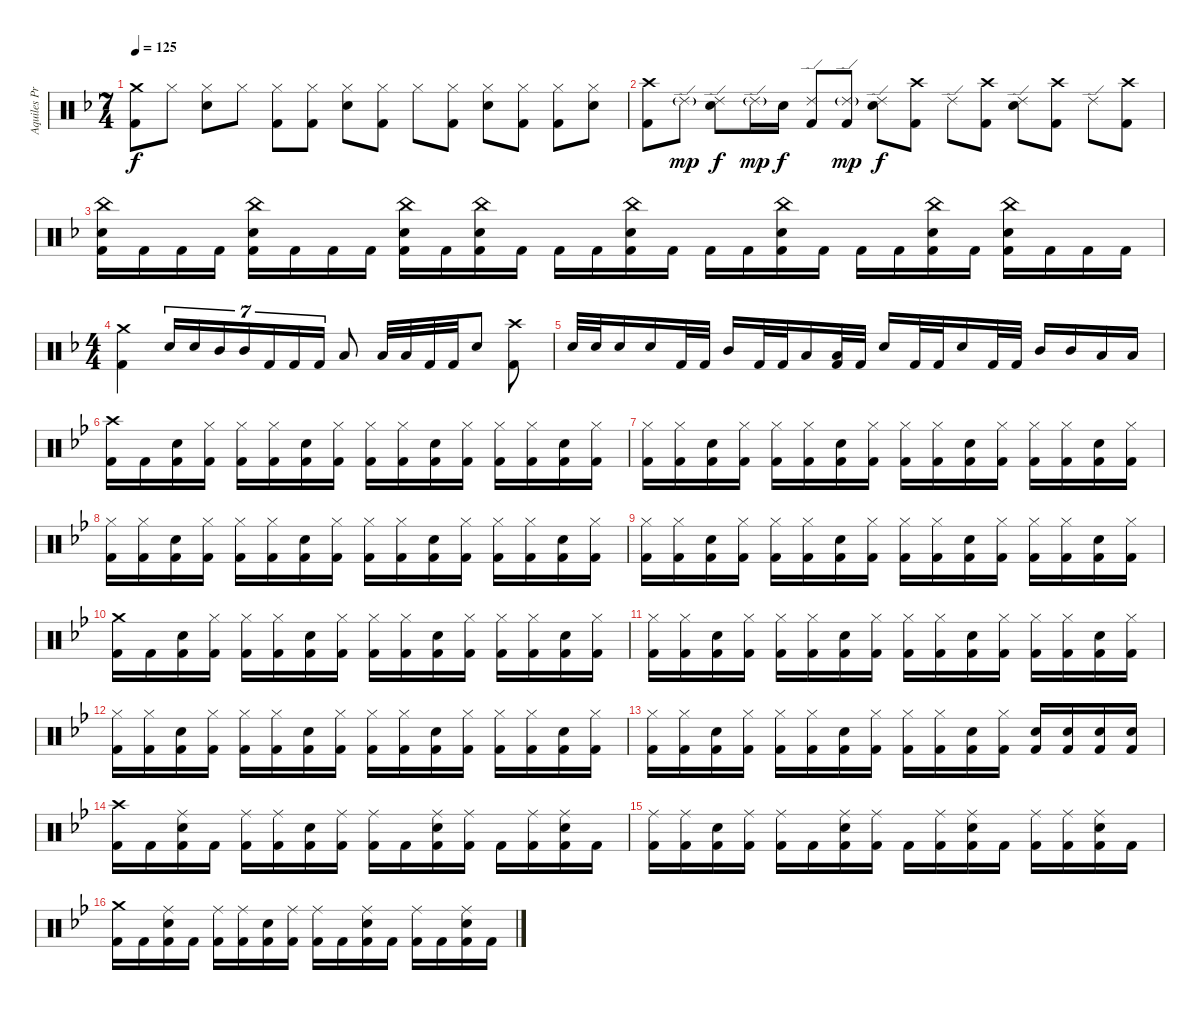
\track ("Aquiles Priester" "Aquiles Pr") {instrument percussion}
\staff {score}
\articulation defaults
\ts (7 4)
\tempo 125
\clef neutral
\ks dminor
("Crash medium (hit)" "Kick (hit) 2").8{dy f} "Hi-Hat (closed)".8 ("Hi-Hat (closed)" "Electric Snare (hit)").8 "Hi-Hat (closed)".8 ("Hi-Hat (closed)" "Kick (hit) 2").8 ("Hi-Hat (closed)" "Kick (hit) 2").8 ("Hi-Hat (closed)" "Electric Snare (hit)").8 ("Hi-Hat (closed)" "Kick (hit) 2").8 "Hi-Hat (closed)".8 ("Hi-Hat (closed)" "Kick (hit) 2").8 ("Hi-Hat (closed)" "Electric Snare (hit)").8 ("Hi-Hat (closed)" "Kick (hit) 2").8 ("Hi-Hat (closed)" "Kick (hit) 2").8 ("Hi-Hat (closed)" "Electric Snare (hit)").8 |
("Crash high (hit)" "Kick (hit) 2").8 "Ride (edge) 2"{g}.8{dy mp} ("Ride (edge) 2" "Electric Snare (hit)").8{dy f} "Ride (edge) 2"{g}.16{dy mp} "Electric Snare (hit)".16{dy f} ("Ride (edge) 2" "Kick (hit) 2").8 ("Ride (edge) 2"{g} "Kick (hit) 2").8{dy mp} ("Ride (edge) 2" "Electric Snare (hit)").8{dy f} ("Crash high (hit)" "Kick (hit) 2").8 "Ride (edge) 2".8 ("Crash high (hit)" "Kick (hit) 2").8 ("Ride (edge) 2" "Electric Snare (hit)").8 ("Crash high (hit)" "Kick (hit) 2").8 "Ride (edge) 2".8 ("Crash high (hit)" "Kick (hit) 2").8 |
("China (hit)" "Electric Snare (hit)" "Kick (hit) 2").16 "Kick (hit) 2".16 "Kick (hit) 2".16 "Kick (hit) 2".16 ("China (hit)" "Electric Snare (hit)" "Kick (hit) 2").16 "Kick (hit) 2".16 "Kick (hit) 2".16 "Kick (hit) 2".16 ("China (hit)" "Electric Snare (hit)" "Kick (hit) 2").16 "Kick (hit) 2".16 ("China (hit)" "Electric Snare (hit)" "Kick (hit) 2").16 "Kick (hit) 2".16 "Kick (hit) 2".16 "Kick (hit) 2".16 ("China (hit)" "Electric Snare (hit)" "Kick (hit) 2").16 "Kick (hit) 2".16 "Kick (hit) 2".16 "Kick (hit) 2".16 ("China (hit)" "Electric Snare (hit)" "Kick (hit) 2").16 "Kick (hit) 2".16 "Kick (hit) 2".16 "Kick (hit) 2".16 ("China (hit)" "Electric Snare (hit)" "Kick (hit) 2").16 "Kick (hit) 2".16 ("China (hit)" "Electric Snare (hit)" "Kick (hit) 2").16 "Kick (hit) 2".16 "Kick (hit) 2".16 "Kick (hit) 2".16 |
\ts (4 4)
("Crash medium (hit)" "Kick (hit) 2").4 "Electric Snare (hit)".16{tu (7 4)} "Electric Snare (hit)".16{tu (7 4)} "Mid Tom (hit)".16{tu (7 4)} "Mid Tom (hit)".16{tu (7 4)} "Kick (hit) 2".16{tu (7 4)} "Kick (hit) 2".16{tu (7 4)} "Kick (hit) 2".16{tu (7 4)} "Low Tom (hit)".8 "Low Tom (hit)".32 "Low Tom (hit)".32 "Kick (hit) 2".32 "Kick (hit) 2".32 "Electric Snare (hit)".8 ("Crash high (hit)" "Kick (hit) 2").8 |
"Electric Snare (hit)".32 "Electric Snare (hit)".32 "Electric Snare (hit)".16 "Electric Snare (hit)".16 "Kick (hit) 2".32 "Kick (hit) 2".32 "Mid Tom (hit)".16 "Kick (hit) 2".32 "Kick (hit) 2".32 "Low Tom (hit)".16 ("Low Tom (hit)" "Kick (hit) 2").32 "Kick (hit) 2".32 "Electric Snare (hit)".16 "Kick (hit) 2".32 "Kick (hit) 2".32 "Electric Snare (hit)".16 "Kick (hit) 2".32 "Kick (hit) 2".32 "Mid Tom (hit)".16 "Mid Tom (hit)".16 "Low Tom (hit)".16 "Low Tom (hit)".16 |
\ks bb
("Crash high (hit)" "Kick (hit) 2").16 "Kick (hit) 2".16 ("Electric Snare (hit)" "Kick (hit) 2").16 ("Hi-Hat (closed)" "Kick (hit) 2").16 ("Hi-Hat (closed)" "Kick (hit) 2").16 ("Hi-Hat (closed)" "Kick (hit) 2").16 ("Electric Snare (hit)" "Kick (hit) 2").16 ("Hi-Hat (closed)" "Kick (hit) 2").16 ("Hi-Hat (closed)" "Kick (hit) 2").16 ("Hi-Hat (closed)" "Kick (hit) 2").16 ("Electric Snare (hit)" "Kick (hit) 2").16 ("Hi-Hat (closed)" "Kick (hit) 2").16 ("Hi-Hat (closed)" "Kick (hit) 2").16 ("Hi-Hat (closed)" "Kick (hit) 2").16 ("Electric Snare (hit)" "Kick (hit) 2").16 ("Hi-Hat (closed)" "Kick (hit) 2").16 |
("Hi-Hat (closed)" "Kick (hit) 2").16 ("Hi-Hat (closed)" "Kick (hit) 2").16 ("Electric Snare (hit)" "Kick (hit) 2").16 ("Hi-Hat (closed)" "Kick (hit) 2").16 ("Hi-Hat (closed)" "Kick (hit) 2").16 ("Hi-Hat (closed)" "Kick (hit) 2").16 ("Electric Snare (hit)" "Kick (hit) 2").16 ("Hi-Hat (closed)" "Kick (hit) 2").16 ("Hi-Hat (closed)" "Kick (hit) 2").16 ("Hi-Hat (closed)" "Kick (hit) 2").16 ("Electric Snare (hit)" "Kick (hit) 2").16 ("Hi-Hat (closed)" "Kick (hit) 2").16 ("Hi-Hat (closed)" "Kick (hit) 2").16 ("Hi-Hat (closed)" "Kick (hit) 2").16 ("Electric Snare (hit)" "Kick (hit) 2").16 ("Hi-Hat (closed)" "Kick (hit) 2").16 |
("Hi-Hat (closed)" "Kick (hit) 2").16 ("Hi-Hat (closed)" "Kick (hit) 2").16 ("Electric Snare (hit)" "Kick (hit) 2").16 ("Hi-Hat (closed)" "Kick (hit) 2").16 ("Hi-Hat (closed)" "Kick (hit) 2").16 ("Hi-Hat (closed)" "Kick (hit) 2").16 ("Electric Snare (hit)" "Kick (hit) 2").16 ("Hi-Hat (closed)" "Kick (hit) 2").16 ("Hi-Hat (closed)" "Kick (hit) 2").16 ("Hi-Hat (closed)" "Kick (hit) 2").16 ("Electric Snare (hit)" "Kick (hit) 2").16 ("Hi-Hat (closed)" "Kick (hit) 2").16 ("Hi-Hat (closed)" "Kick (hit) 2").16 ("Hi-Hat (closed)" "Kick (hit) 2").16 ("Electric Snare (hit)" "Kick (hit) 2").16 ("Hi-Hat (closed)" "Kick (hit) 2").16 |
("Hi-Hat (closed)" "Kick (hit) 2").16 ("Hi-Hat (closed)" "Kick (hit) 2").16 ("Electric Snare (hit)" "Kick (hit) 2").16 ("Hi-Hat (closed)" "Kick (hit) 2").16 ("Hi-Hat (closed)" "Kick (hit) 2").16 ("Hi-Hat (closed)" "Kick (hit) 2").16 ("Electric Snare (hit)" "Kick (hit) 2").16 ("Hi-Hat (closed)" "Kick (hit) 2").16 ("Hi-Hat (closed)" "Kick (hit) 2").16 ("Hi-Hat (closed)" "Kick (hit) 2").16 ("Electric Snare (hit)" "Kick (hit) 2").16 ("Hi-Hat (closed)" "Kick (hit) 2").16 ("Hi-Hat (closed)" "Kick (hit) 2").16 ("Hi-Hat (closed)" "Kick (hit) 2").16 ("Electric Snare (hit)" "Kick (hit) 2").16 ("Hi-Hat (closed)" "Kick (hit) 2").16 |
("Crash medium (hit)" "Kick (hit) 2").16 "Kick (hit) 2".16 ("Electric Snare (hit)" "Kick (hit) 2").16 ("Hi-Hat (closed)" "Kick (hit) 2").16 ("Hi-Hat (closed)" "Kick (hit) 2").16 ("Hi-Hat (closed)" "Kick (hit) 2").16 ("Electric Snare (hit)" "Kick (hit) 2").16 ("Hi-Hat (closed)" "Kick (hit) 2").16 ("Hi-Hat (closed)" "Kick (hit) 2").16 ("Hi-Hat (closed)" "Kick (hit) 2").16 ("Electric Snare (hit)" "Kick (hit) 2").16 ("Hi-Hat (closed)" "Kick (hit) 2").16 ("Hi-Hat (closed)" "Kick (hit) 2").16 ("Hi-Hat (closed)" "Kick (hit) 2").16 ("Electric Snare (hit)" "Kick (hit) 2").16 ("Hi-Hat (closed)" "Kick (hit) 2").16 |
("Hi-Hat (closed)" "Kick (hit) 2").16 ("Hi-Hat (closed)" "Kick (hit) 2").16 ("Electric Snare (hit)" "Kick (hit) 2").16 ("Hi-Hat (closed)" "Kick (hit) 2").16 ("Hi-Hat (closed)" "Kick (hit) 2").16 ("Hi-Hat (closed)" "Kick (hit) 2").16 ("Electric Snare (hit)" "Kick (hit) 2").16 ("Hi-Hat (closed)" "Kick (hit) 2").16 ("Hi-Hat (closed)" "Kick (hit) 2").16 ("Hi-Hat (closed)" "Kick (hit) 2").16 ("Electric Snare (hit)" "Kick (hit) 2").16 ("Hi-Hat (closed)" "Kick (hit) 2").16 ("Hi-Hat (closed)" "Kick (hit) 2").16 ("Hi-Hat (closed)" "Kick (hit) 2").16 ("Electric Snare (hit)" "Kick (hit) 2").16 ("Hi-Hat (closed)" "Kick (hit) 2").16 |
("Hi-Hat (closed)" "Kick (hit) 2").16 ("Hi-Hat (closed)" "Kick (hit) 2").16 ("Electric Snare (hit)" "Kick (hit) 2").16 ("Hi-Hat (closed)" "Kick (hit) 2").16 ("Hi-Hat (closed)" "Kick (hit) 2").16 ("Hi-Hat (closed)" "Kick (hit) 2").16 ("Electric Snare (hit)" "Kick (hit) 2").16 ("Hi-Hat (closed)" "Kick (hit) 2").16 ("Hi-Hat (closed)" "Kick (hit) 2").16 ("Hi-Hat (closed)" "Kick (hit) 2").16 ("Electric Snare (hit)" "Kick (hit) 2").16 ("Hi-Hat (closed)" "Kick (hit) 2").16 ("Hi-Hat (closed)" "Kick (hit) 2").16 ("Hi-Hat (closed)" "Kick (hit) 2").16 ("Electric Snare (hit)" "Kick (hit) 2").16 ("Hi-Hat (closed)" "Kick (hit) 2").16 |
("Hi-Hat (closed)" "Kick (hit) 2").16 ("Hi-Hat (closed)" "Kick (hit) 2").16 ("Electric Snare (hit)" "Kick (hit) 2").16 ("Hi-Hat (closed)" "Kick (hit) 2").16 ("Hi-Hat (closed)" "Kick (hit) 2").16 ("Hi-Hat (closed)" "Kick (hit) 2").16 ("Electric Snare (hit)" "Kick (hit) 2").16 ("Hi-Hat (closed)" "Kick (hit) 2").16 ("Hi-Hat (closed)" "Kick (hit) 2").16 ("Hi-Hat (closed)" "Kick (hit) 2").16 ("Electric Snare (hit)" "Kick (hit) 2").16 ("Hi-Hat (closed)" "Kick (hit) 2").16 ("Electric Snare (hit)" "Kick (hit) 2").16 ("Electric Snare (hit)" "Kick (hit) 2").16 ("Electric Snare (hit)" "Kick (hit) 2").16 ("Electric Snare (hit)" "Kick (hit) 2").16 |
("Crash high (hit)" "Kick (hit) 2").16 "Kick (hit) 2".16 ("Ride (middle)" "Electric Snare (hit)" "Kick (hit) 2").16 "Kick (hit) 2".16 ("Ride (middle)" "Kick (hit) 2").16 ("Ride (middle)" "Kick (hit) 2").16 ("Electric Snare (hit)" "Kick (hit) 2").16 ("Ride (middle)" "Kick (hit) 2").16 ("Ride (middle)" "Kick (hit) 2").16 "Kick (hit) 2".16 ("Ride (middle)" "Electric Snare (hit)" "Kick (hit) 2").16 ("Ride (middle)" "Kick (hit) 2").16 "Kick (hit) 2".16 ("Ride (middle)" "Kick (hit) 2").16 ("Ride (middle)" "Electric Snare (hit)" "Kick (hit) 2").16 "Kick (hit) 2".16 |
("Ride (middle)" "Kick (hit) 2").16 ("Ride (middle)" "Kick (hit) 2").16 ("Electric Snare (hit)" "Kick (hit) 2").16 ("Ride (middle)" "Kick (hit) 2").16 ("Ride (middle)" "Kick (hit) 2").16 "Kick (hit) 2".16 ("Ride (middle)" "Electric Snare (hit)" "Kick (hit) 2").16 ("Ride (middle)" "Kick (hit) 2").16 "Kick (hit) 2".16 ("Ride (middle)" "Kick (hit) 2").16 ("Ride (middle)" "Electric Snare (hit)" "Kick (hit) 2").16 "Kick (hit) 2".16 ("Ride (middle)" "Kick (hit) 2").16 ("Ride (middle)" "Kick (hit) 2").16 ("Ride (middle)" "Electric Snare (hit)" "Kick (hit) 2").16 "Kick (hit) 2".16 |
("Crash medium (hit)" "Kick (hit) 2").16 "Kick (hit) 2".16 ("Ride (middle)" "Electric Snare (hit)" "Kick (hit) 2").16 "Kick (hit) 2".16 ("Ride (middle)" "Kick (hit) 2").16 ("Ride (middle)" "Kick (hit) 2").16 ("Electric Snare (hit)" "Kick (hit) 2").16 ("Ride (middle)" "Kick (hit) 2").16 ("Ride (middle)" "Kick (hit) 2").16 "Kick (hit) 2".16 ("Ride (middle)" "Electric Snare (hit)" "Kick (hit) 2").16 "Kick (hit) 2".16 ("Ride (middle)" "Kick (hit) 2").16 "Kick (hit) 2".16 ("Ride (middle)" "Electric Snare (hit)" "Kick (hit) 2").16 "Kick (hit) 2".16
